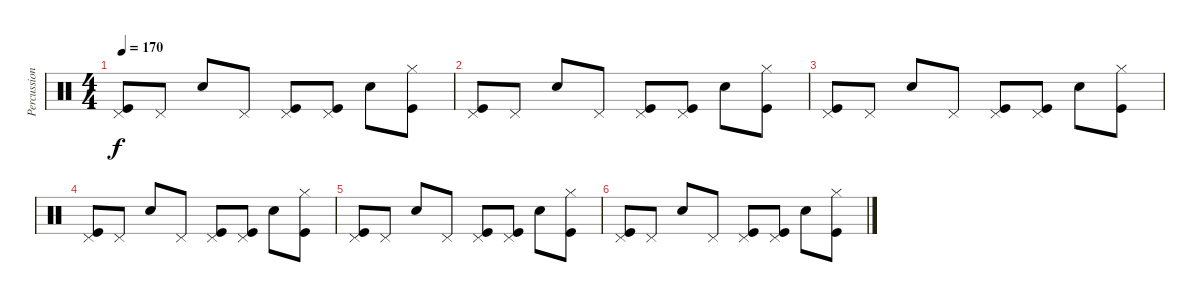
\track ("Percussion" "Percussion") {instrument percussion}
\staff {score}
\articulation defaults
\ts (4 4)
\tempo 170
\clef neutral
\ks c
("Pedal Hi-Hat (hit)" "Kick (hit)").8{dy f} "Pedal Hi-Hat (hit)".8 "Snare (hit) 2".8 "Pedal Hi-Hat (hit)".8 ("Pedal Hi-Hat (hit)" "Kick (hit)").8 ("Pedal Hi-Hat (hit)" "Kick (hit)").8 "Snare (hit) 2".8 ("Hi-Hat (closed)" "Kick (hit)").8 |
("Pedal Hi-Hat (hit)" "Kick (hit)").8 "Pedal Hi-Hat (hit)".8 "Snare (hit) 2".8 "Pedal Hi-Hat (hit)".8 ("Pedal Hi-Hat (hit)" "Kick (hit)").8 ("Pedal Hi-Hat (hit)" "Kick (hit)").8 "Snare (hit) 2".8 ("Hi-Hat (closed)" "Kick (hit)").8 |
("Pedal Hi-Hat (hit)" "Kick (hit)").8 "Pedal Hi-Hat (hit)".8 "Snare (hit) 2".8 "Pedal Hi-Hat (hit)".8 ("Pedal Hi-Hat (hit)" "Kick (hit)").8 ("Pedal Hi-Hat (hit)" "Kick (hit)").8 "Snare (hit) 2".8 ("Hi-Hat (closed)" "Kick (hit)").8 |
("Pedal Hi-Hat (hit)" "Kick (hit)").8 "Pedal Hi-Hat (hit)".8 "Snare (hit) 2".8 "Pedal Hi-Hat (hit)".8 ("Pedal Hi-Hat (hit)" "Kick (hit)").8 ("Pedal Hi-Hat (hit)" "Kick (hit)").8 "Snare (hit) 2".8 ("Hi-Hat (closed)" "Kick (hit)").8 |
("Pedal Hi-Hat (hit)" "Kick (hit)").8 "Pedal Hi-Hat (hit)".8 "Snare (hit) 2".8 "Pedal Hi-Hat (hit)".8 ("Pedal Hi-Hat (hit)" "Kick (hit)").8 ("Pedal Hi-Hat (hit)" "Kick (hit)").8 "Snare (hit) 2".8 ("Hi-Hat (closed)" "Kick (hit)").8 |
("Pedal Hi-Hat (hit)" "Kick (hit)").8 "Pedal Hi-Hat (hit)".8 "Snare (hit) 2".8 "Pedal Hi-Hat (hit)".8 ("Pedal Hi-Hat (hit)" "Kick (hit)").8 ("Pedal Hi-Hat (hit)" "Kick (hit)").8 "Snare (hit) 2".8 ("Hi-Hat (closed)" "Kick (hit)").8
